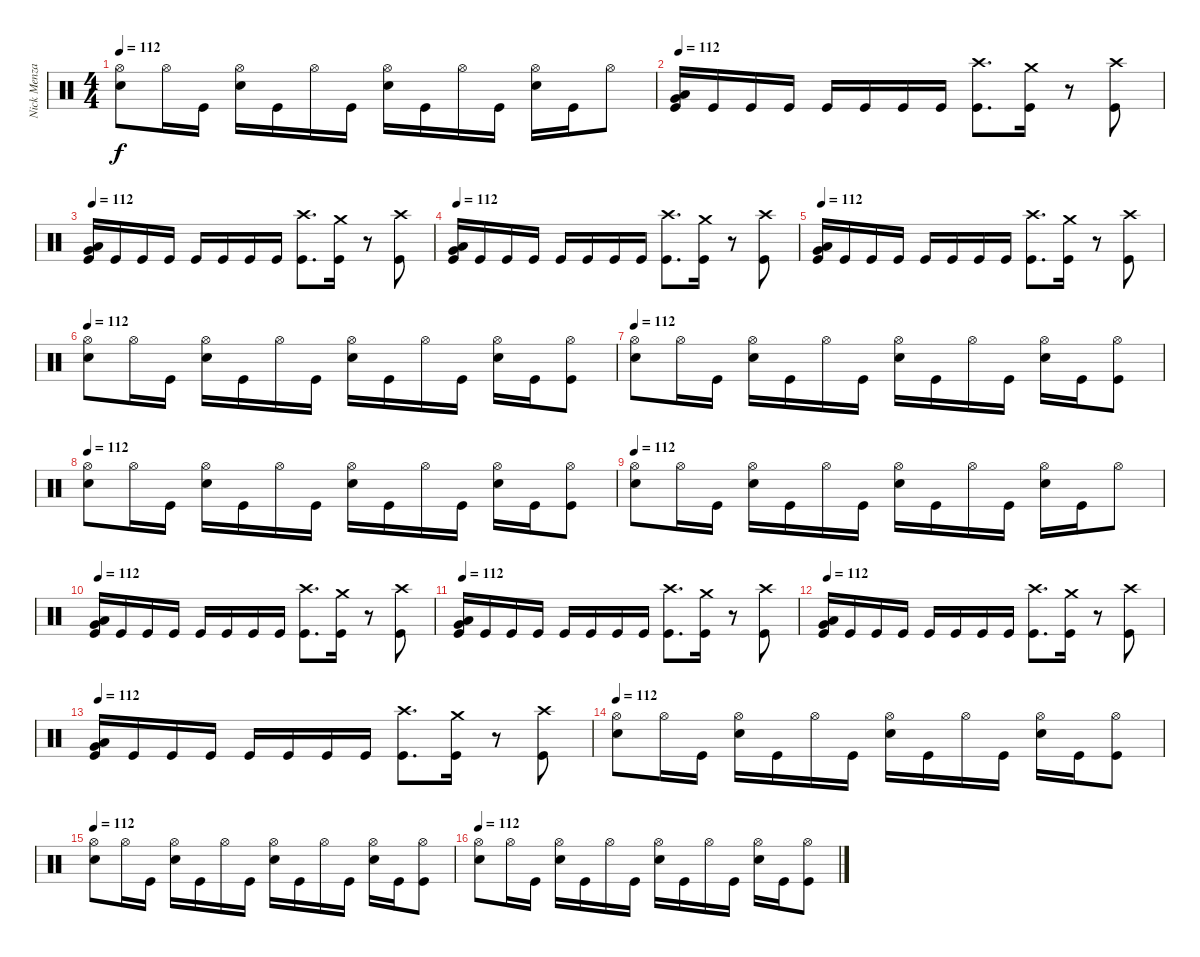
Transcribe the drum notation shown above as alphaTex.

\track ("Nick Menza" "Nick Menza") {instrument percussion}
\staff {score}
\articulation defaults
\ts (4 4)
\tempo 112
\clef neutral
\ks c
("Hi-Hat (open)" "Snare (hit) 2").8{dy f} "Hi-Hat (open)".16 "Kick (hit)".16 ("Hi-Hat (open)" "Snare (hit) 2").16 "Kick (hit)".16 "Hi-Hat (open)".16 "Kick (hit)".16 ("Hi-Hat (open)" "Snare (hit) 2").16 "Kick (hit)".16 "Hi-Hat (open)".16 "Kick (hit)".16 ("Hi-Hat (open)" "Snare (hit) 2").16 "Kick (hit)".16 "Hi-Hat (open)".8 |
\tempo 112
("Very Low Tom (hit)" "Low Floor Tom (hit)" "Kick (hit)").16 "Kick (hit)".16 "Kick (hit)".16 "Kick (hit)".16 "Kick (hit)".16 "Kick (hit)".16 "Kick (hit)".16 "Kick (hit)".16 ("Crash high (hit)" "Kick (hit)").8{d} ("Crash medium (hit)" "Kick (hit)").16 r.8 ("Crash high (hit)" "Kick (hit)").8 |
\tempo 112
("Very Low Tom (hit)" "Low Floor Tom (hit)" "Kick (hit)").16 "Kick (hit)".16 "Kick (hit)".16 "Kick (hit)".16 "Kick (hit)".16 "Kick (hit)".16 "Kick (hit)".16 "Kick (hit)".16 ("Crash high (hit)" "Kick (hit)").8{d} ("Crash medium (hit)" "Kick (hit)").16 r.8 ("Crash high (hit)" "Kick (hit)").8 |
\tempo 112
("Very Low Tom (hit)" "Low Floor Tom (hit)" "Kick (hit)").16 "Kick (hit)".16 "Kick (hit)".16 "Kick (hit)".16 "Kick (hit)".16 "Kick (hit)".16 "Kick (hit)".16 "Kick (hit)".16 ("Crash high (hit)" "Kick (hit)").8{d} ("Crash medium (hit)" "Kick (hit)").16 r.8 ("Crash high (hit)" "Kick (hit)").8 |
\tempo 112
("Very Low Tom (hit)" "Low Floor Tom (hit)" "Kick (hit)").16 "Kick (hit)".16 "Kick (hit)".16 "Kick (hit)".16 "Kick (hit)".16 "Kick (hit)".16 "Kick (hit)".16 "Kick (hit)".16 ("Crash high (hit)" "Kick (hit)").8{d} ("Crash medium (hit)" "Kick (hit)").16 r.8 ("Crash high (hit)" "Kick (hit)").8 |
\tempo 112
("Hi-Hat (open)" "Snare (hit) 2").8 "Hi-Hat (open)".16 "Kick (hit)".16 ("Hi-Hat (open)" "Snare (hit) 2").16 "Kick (hit)".16 "Hi-Hat (open)".16 "Kick (hit)".16 ("Hi-Hat (open)" "Snare (hit) 2").16 "Kick (hit)".16 "Hi-Hat (open)".16 "Kick (hit)".16 ("Hi-Hat (open)" "Snare (hit) 2").16 "Kick (hit)".16 ("Hi-Hat (open)" "Kick (hit)").8 |
\tempo 112
("Hi-Hat (open)" "Snare (hit) 2").8 "Hi-Hat (open)".16 "Kick (hit)".16 ("Hi-Hat (open)" "Snare (hit) 2").16 "Kick (hit)".16 "Hi-Hat (open)".16 "Kick (hit)".16 ("Hi-Hat (open)" "Snare (hit) 2").16 "Kick (hit)".16 "Hi-Hat (open)".16 "Kick (hit)".16 ("Hi-Hat (open)" "Snare (hit) 2").16 "Kick (hit)".16 ("Hi-Hat (open)" "Kick (hit)").8 |
\tempo 112
("Hi-Hat (open)" "Snare (hit) 2").8 "Hi-Hat (open)".16 "Kick (hit)".16 ("Hi-Hat (open)" "Snare (hit) 2").16 "Kick (hit)".16 "Hi-Hat (open)".16 "Kick (hit)".16 ("Hi-Hat (open)" "Snare (hit) 2").16 "Kick (hit)".16 "Hi-Hat (open)".16 "Kick (hit)".16 ("Hi-Hat (open)" "Snare (hit) 2").16 "Kick (hit)".16 ("Hi-Hat (open)" "Kick (hit)").8 |
\tempo 112
("Hi-Hat (open)" "Snare (hit) 2").8 "Hi-Hat (open)".16 "Kick (hit)".16 ("Hi-Hat (open)" "Snare (hit) 2").16 "Kick (hit)".16 "Hi-Hat (open)".16 "Kick (hit)".16 ("Hi-Hat (open)" "Snare (hit) 2").16 "Kick (hit)".16 "Hi-Hat (open)".16 "Kick (hit)".16 ("Hi-Hat (open)" "Snare (hit) 2").16 "Kick (hit)".16 "Hi-Hat (open)".8 |
\tempo 112
("Very Low Tom (hit)" "Low Floor Tom (hit)" "Kick (hit)").16 "Kick (hit)".16 "Kick (hit)".16 "Kick (hit)".16 "Kick (hit)".16 "Kick (hit)".16 "Kick (hit)".16 "Kick (hit)".16 ("Crash high (hit)" "Kick (hit)").8{d} ("Crash medium (hit)" "Kick (hit)").16 r.8 ("Crash high (hit)" "Kick (hit)").8 |
\tempo 112
("Very Low Tom (hit)" "Low Floor Tom (hit)" "Kick (hit)").16 "Kick (hit)".16 "Kick (hit)".16 "Kick (hit)".16 "Kick (hit)".16 "Kick (hit)".16 "Kick (hit)".16 "Kick (hit)".16 ("Crash high (hit)" "Kick (hit)").8{d} ("Crash medium (hit)" "Kick (hit)").16 r.8 ("Crash high (hit)" "Kick (hit)").8 |
\tempo 112
("Very Low Tom (hit)" "Low Floor Tom (hit)" "Kick (hit)").16 "Kick (hit)".16 "Kick (hit)".16 "Kick (hit)".16 "Kick (hit)".16 "Kick (hit)".16 "Kick (hit)".16 "Kick (hit)".16 ("Crash high (hit)" "Kick (hit)").8{d} ("Crash medium (hit)" "Kick (hit)").16 r.8 ("Crash high (hit)" "Kick (hit)").8 |
\tempo 112
("Very Low Tom (hit)" "Low Floor Tom (hit)" "Kick (hit)").16 "Kick (hit)".16 "Kick (hit)".16 "Kick (hit)".16 "Kick (hit)".16 "Kick (hit)".16 "Kick (hit)".16 "Kick (hit)".16 ("Crash high (hit)" "Kick (hit)").8{d} ("Crash medium (hit)" "Kick (hit)").16 r.8 ("Crash high (hit)" "Kick (hit)").8 |
\tempo 112
("Hi-Hat (open)" "Snare (hit) 2").8 "Hi-Hat (open)".16 "Kick (hit)".16 ("Hi-Hat (open)" "Snare (hit) 2").16 "Kick (hit)".16 "Hi-Hat (open)".16 "Kick (hit)".16 ("Hi-Hat (open)" "Snare (hit) 2").16 "Kick (hit)".16 "Hi-Hat (open)".16 "Kick (hit)".16 ("Hi-Hat (open)" "Snare (hit) 2").16 "Kick (hit)".16 ("Hi-Hat (open)" "Kick (hit)").8 |
\tempo 112
("Hi-Hat (open)" "Snare (hit) 2").8 "Hi-Hat (open)".16 "Kick (hit)".16 ("Hi-Hat (open)" "Snare (hit) 2").16 "Kick (hit)".16 "Hi-Hat (open)".16 "Kick (hit)".16 ("Hi-Hat (open)" "Snare (hit) 2").16 "Kick (hit)".16 "Hi-Hat (open)".16 "Kick (hit)".16 ("Hi-Hat (open)" "Snare (hit) 2").16 "Kick (hit)".16 ("Hi-Hat (open)" "Kick (hit)").8 |
\tempo 112
("Hi-Hat (open)" "Snare (hit) 2").8 "Hi-Hat (open)".16 "Kick (hit)".16 ("Hi-Hat (open)" "Snare (hit) 2").16 "Kick (hit)".16 "Hi-Hat (open)".16 "Kick (hit)".16 ("Hi-Hat (open)" "Snare (hit) 2").16 "Kick (hit)".16 "Hi-Hat (open)".16 "Kick (hit)".16 ("Hi-Hat (open)" "Snare (hit) 2").16 "Kick (hit)".16 ("Hi-Hat (open)" "Kick (hit)").8
